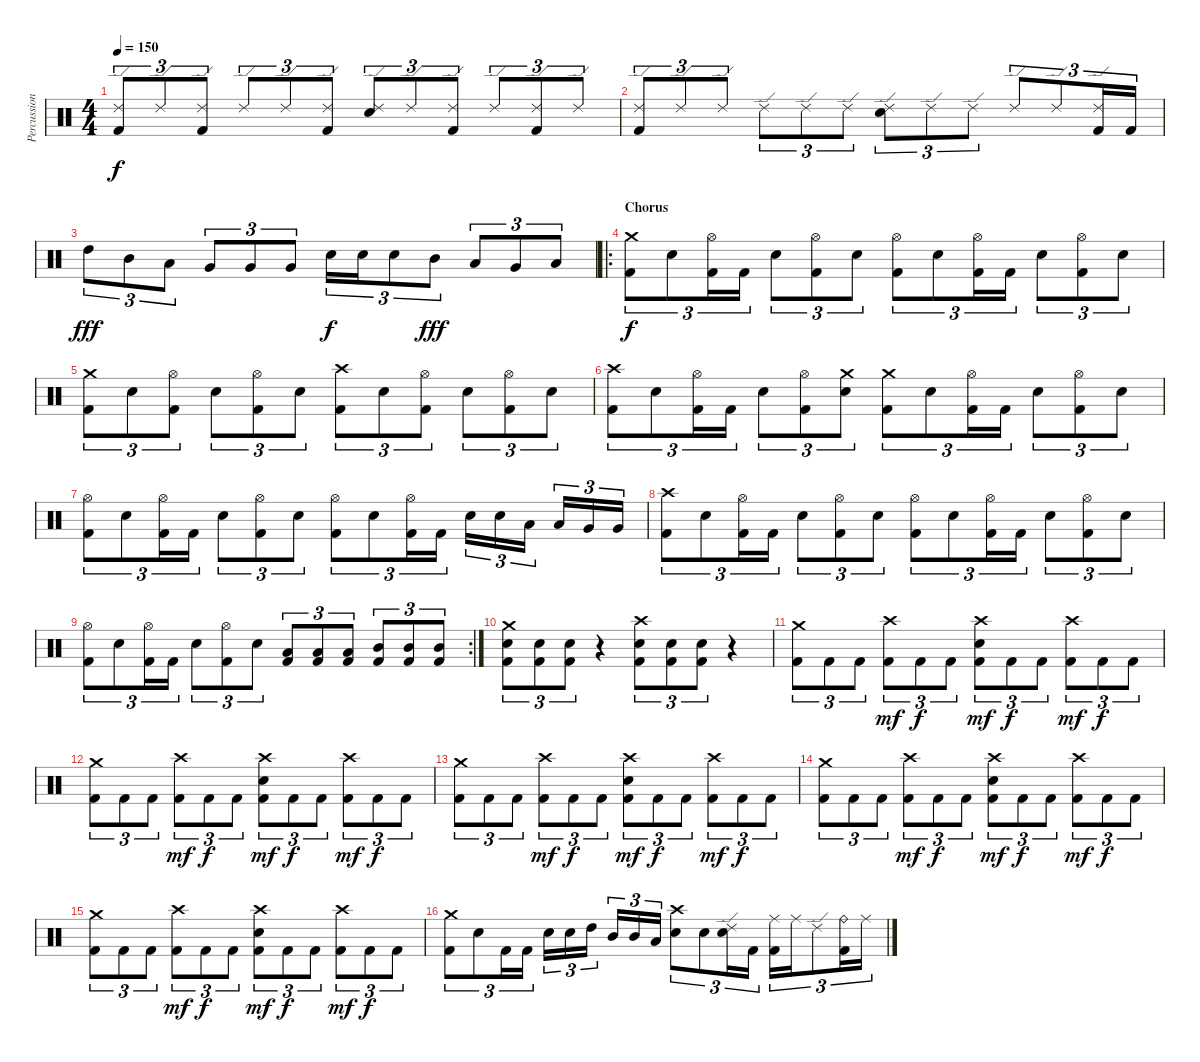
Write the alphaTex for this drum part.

\track ("Percussion" "Percussion") {instrument percussion}
\staff {score}
\articulation defaults
\ts (4 4)
\tempo 150
\clef neutral
\ks c
("Kick (hit) 2" "Ride (edge) 2").8{tu (3 2) dy f} "Ride (edge) 2".8{tu (3 2)} ("Kick (hit) 2" "Ride (edge) 2").8{tu (3 2)} "Ride (edge) 2".8{tu (3 2)} "Ride (edge) 2".8{tu (3 2)} ("Kick (hit) 2" "Ride (edge) 2").8{tu (3 2)} ("Electric Snare (hit)" "Ride (edge) 2").8{tu (3 2)} "Ride (edge) 2".8{tu (3 2)} ("Kick (hit) 2" "Ride (edge) 2").8{tu (3 2)} "Ride (edge) 2".8{tu (3 2)} ("Kick (hit) 2" "Ride (edge) 2").8{tu (3 2)} "Ride (edge) 2".8{tu (3 2)} |
("Kick (hit) 2" "Ride (edge) 2").8{tu (3 2)} "Ride (edge) 2".8{tu (3 2)} "Ride (edge) 2".8{tu (3 2)} "Ride (edge) 2".8{tu (3 2)} "Ride (edge) 2".8{tu (3 2)} "Ride (edge) 2".8{tu (3 2)} ("Electric Snare (hit)" "Ride (edge) 2").8{tu (3 2)} "Ride (edge) 2".8{tu (3 2)} "Ride (edge) 2".8{tu (3 2)} "Ride (edge) 2".8{tu (3 2)} "Ride (edge) 2".8{tu (3 2)} ("Kick (hit) 2" "Ride (edge) 2").16{tu (3 2)} "Kick (hit) 2".16{tu (3 2)} |
"High Tom (hit)".8{tu (3 2) dy fff} "Mid Tom (hit)".8{tu (3 2)} "Low Tom (hit)".8{tu (3 2)} "Very Low Tom (hit)".8{tu (3 2)} "Very Low Tom (hit)".8{tu (3 2)} "Very Low Tom (hit)".8{tu (3 2)} "Electric Snare (hit)".16{tu (3 2) dy f} "Electric Snare (hit)".16{tu (3 2)} "Electric Snare (hit)".8{tu (3 2)} "Mid Tom (hit)".8{tu (3 2) dy fff} "Low Tom (hit)".8{tu (3 2)} "Very Low Tom (hit)".8{tu (3 2)} "Low Floor Tom (hit)".8{tu (3 2)} |
\ro
\section ("" "Chorus")
("Kick (hit) 2" "Crash medium (hit)").8{tu (3 2) dy f} "Electric Snare (hit)".8{tu (3 2)} ("Kick (hit) 2" "Hi-Hat (open)").16{tu (3 2)} "Kick (hit) 2".16{tu (3 2)} "Electric Snare (hit)".8{tu (3 2)} ("Kick (hit) 2" "Hi-Hat (open)").8{tu (3 2)} "Electric Snare (hit)".8{tu (3 2)} ("Kick (hit) 2" "Hi-Hat (open)").8{tu (3 2)} "Electric Snare (hit)".8{tu (3 2)} ("Kick (hit) 2" "Hi-Hat (open)").16{tu (3 2)} "Kick (hit) 2".16{tu (3 2)} "Electric Snare (hit)".8{tu (3 2)} ("Kick (hit) 2" "Hi-Hat (open)").8{tu (3 2)} "Electric Snare (hit)".8{tu (3 2)} |
("Kick (hit) 2" "Crash medium (hit)").8{tu (3 2)} "Electric Snare (hit)".8{tu (3 2)} ("Kick (hit) 2" "Hi-Hat (open)").8{tu (3 2)} "Electric Snare (hit)".8{tu (3 2)} ("Kick (hit) 2" "Hi-Hat (open)").8{tu (3 2)} "Electric Snare (hit)".8{tu (3 2)} ("Kick (hit) 2" "Crash high (hit)").8{tu (3 2)} "Electric Snare (hit)".8{tu (3 2)} ("Kick (hit) 2" "Hi-Hat (open)").8{tu (3 2)} "Electric Snare (hit)".8{tu (3 2)} ("Kick (hit) 2" "Hi-Hat (open)").8{tu (3 2)} "Electric Snare (hit)".8{tu (3 2)} |
("Kick (hit) 2" "Crash high (hit)").8{tu (3 2)} "Electric Snare (hit)".8{tu (3 2)} ("Kick (hit) 2" "Hi-Hat (open)").16{tu (3 2)} "Kick (hit) 2".16{tu (3 2)} "Electric Snare (hit)".8{tu (3 2)} ("Kick (hit) 2" "Hi-Hat (open)").8{tu (3 2)} ("Electric Snare (hit)" "Crash medium (hit)").8{tu (3 2)} ("Kick (hit) 2" "Crash medium (hit)").8{tu (3 2)} "Electric Snare (hit)".8{tu (3 2)} ("Kick (hit) 2" "Hi-Hat (open)").16{tu (3 2)} "Kick (hit) 2".16{tu (3 2)} "Electric Snare (hit)".8{tu (3 2)} ("Kick (hit) 2" "Hi-Hat (open)").8{tu (3 2)} "Electric Snare (hit)".8{tu (3 2)} |
("Kick (hit) 2" "Hi-Hat (open)").8{tu (3 2)} "Electric Snare (hit)".8{tu (3 2)} ("Kick (hit) 2" "Hi-Hat (open)").16{tu (3 2)} "Kick (hit) 2".16{tu (3 2)} "Electric Snare (hit)".8{tu (3 2)} ("Kick (hit) 2" "Hi-Hat (open)").8{tu (3 2)} "Electric Snare (hit)".8{tu (3 2)} ("Kick (hit) 2" "Hi-Hat (open)").8{tu (3 2)} "Electric Snare (hit)".8{tu (3 2)} ("Kick (hit) 2" "Hi-Hat (open)").16{tu (3 2)} "Kick (hit) 2".16{tu (3 2)} "Electric Snare (hit)".16{tu (3 2)} "Electric Snare (hit)".16{tu (3 2)} "Low Tom (hit)".16{tu (3 2)} "Low Tom (hit)".16{tu (3 2)} "Very Low Tom (hit)".16{tu (3 2)} "Very Low Tom (hit)".16{tu (3 2)} |
("Kick (hit) 2" "Crash high (hit)").8{tu (3 2)} "Electric Snare (hit)".8{tu (3 2)} ("Kick (hit) 2" "Hi-Hat (open)").16{tu (3 2)} "Kick (hit) 2".16{tu (3 2)} "Electric Snare (hit)".8{tu (3 2)} ("Kick (hit) 2" "Hi-Hat (open)").8{tu (3 2)} "Electric Snare (hit)".8{tu (3 2)} ("Kick (hit) 2" "Hi-Hat (open)").8{tu (3 2)} "Electric Snare (hit)".8{tu (3 2)} ("Kick (hit) 2" "Hi-Hat (open)").16{tu (3 2)} "Kick (hit) 2".16{tu (3 2)} "Electric Snare (hit)".8{tu (3 2)} ("Kick (hit) 2" "Hi-Hat (open)").8{tu (3 2)} "Electric Snare (hit)".8{tu (3 2)} |
\rc 2
("Kick (hit) 2" "Hi-Hat (open)").8{tu (3 2)} "Electric Snare (hit)".8{tu (3 2)} ("Kick (hit) 2" "Hi-Hat (open)").16{tu (3 2)} "Kick (hit) 2".16{tu (3 2)} "Electric Snare (hit)".8{tu (3 2)} ("Kick (hit) 2" "Hi-Hat (open)").8{tu (3 2)} "Electric Snare (hit)".8{tu (3 2)} ("Kick (hit) 2" "Low Tom (hit)").8{tu (3 2)} ("Kick (hit) 2" "Low Tom (hit)").8{tu (3 2)} ("Kick (hit) 2" "Low Tom (hit)").8{tu (3 2)} ("Kick (hit) 2" "Mid Tom (hit)").8{tu (3 2)} ("Kick (hit) 2" "Mid Tom (hit)").8{tu (3 2)} ("Kick (hit) 2" "Mid Tom (hit)").8{tu (3 2)} |
("Kick (hit) 2" "Electric Snare (hit)" "Crash medium (hit)").8{tu (3 2)} ("Kick (hit) 2" "Electric Snare (hit)").8{tu (3 2)} ("Kick (hit) 2" "Electric Snare (hit)").8{tu (3 2)} r.4 ("Kick (hit) 2" "Electric Snare (hit)" "Crash high (hit)").8{tu (3 2)} ("Kick (hit) 2" "Electric Snare (hit)").8{tu (3 2)} ("Kick (hit) 2" "Electric Snare (hit)").8{tu (3 2)} r.4 |
("Kick (hit) 2" "Crash medium (hit)").8{tu (3 2)} "Kick (hit) 2".8{tu (3 2)} "Kick (hit) 2".8{tu (3 2)} ("Kick (hit) 2" "Crash high (hit)").8{tu (3 2) dy mf} "Kick (hit) 2".8{tu (3 2) dy f} "Kick (hit) 2".8{tu (3 2)} ("Kick (hit) 2" "Electric Snare (hit)" "Crash high (hit)").8{tu (3 2) dy mf} "Kick (hit) 2".8{tu (3 2) dy f} "Kick (hit) 2".8{tu (3 2)} ("Kick (hit) 2" "Crash high (hit)").8{tu (3 2) dy mf} "Kick (hit) 2".8{tu (3 2) dy f} "Kick (hit) 2".8{tu (3 2)} |
("Kick (hit) 2" "Crash medium (hit)").8{tu (3 2)} "Kick (hit) 2".8{tu (3 2)} "Kick (hit) 2".8{tu (3 2)} ("Kick (hit) 2" "Crash high (hit)").8{tu (3 2) dy mf} "Kick (hit) 2".8{tu (3 2) dy f} "Kick (hit) 2".8{tu (3 2)} ("Kick (hit) 2" "Electric Snare (hit)" "Crash high (hit)").8{tu (3 2) dy mf} "Kick (hit) 2".8{tu (3 2) dy f} "Kick (hit) 2".8{tu (3 2)} ("Kick (hit) 2" "Crash high (hit)").8{tu (3 2) dy mf} "Kick (hit) 2".8{tu (3 2) dy f} "Kick (hit) 2".8{tu (3 2)} |
("Kick (hit) 2" "Crash medium (hit)").8{tu (3 2)} "Kick (hit) 2".8{tu (3 2)} "Kick (hit) 2".8{tu (3 2)} ("Kick (hit) 2" "Crash high (hit)").8{tu (3 2) dy mf} "Kick (hit) 2".8{tu (3 2) dy f} "Kick (hit) 2".8{tu (3 2)} ("Kick (hit) 2" "Electric Snare (hit)" "Crash high (hit)").8{tu (3 2) dy mf} "Kick (hit) 2".8{tu (3 2) dy f} "Kick (hit) 2".8{tu (3 2)} ("Kick (hit) 2" "Crash high (hit)").8{tu (3 2) dy mf} "Kick (hit) 2".8{tu (3 2) dy f} "Kick (hit) 2".8{tu (3 2)} |
("Kick (hit) 2" "Crash medium (hit)").8{tu (3 2)} "Kick (hit) 2".8{tu (3 2)} "Kick (hit) 2".8{tu (3 2)} ("Kick (hit) 2" "Crash high (hit)").8{tu (3 2) dy mf} "Kick (hit) 2".8{tu (3 2) dy f} "Kick (hit) 2".8{tu (3 2)} ("Kick (hit) 2" "Electric Snare (hit)" "Crash high (hit)").8{tu (3 2) dy mf} "Kick (hit) 2".8{tu (3 2) dy f} "Kick (hit) 2".8{tu (3 2)} ("Kick (hit) 2" "Crash high (hit)").8{tu (3 2) dy mf} "Kick (hit) 2".8{tu (3 2) dy f} "Kick (hit) 2".8{tu (3 2)} |
("Kick (hit) 2" "Crash medium (hit)").8{tu (3 2)} "Kick (hit) 2".8{tu (3 2)} "Kick (hit) 2".8{tu (3 2)} ("Kick (hit) 2" "Crash high (hit)").8{tu (3 2) dy mf} "Kick (hit) 2".8{tu (3 2) dy f} "Kick (hit) 2".8{tu (3 2)} ("Kick (hit) 2" "Electric Snare (hit)" "Crash high (hit)").8{tu (3 2) dy mf} "Kick (hit) 2".8{tu (3 2) dy f} "Kick (hit) 2".8{tu (3 2)} ("Kick (hit) 2" "Crash high (hit)").8{tu (3 2) dy mf} "Kick (hit) 2".8{tu (3 2) dy f} "Kick (hit) 2".8{tu (3 2)} |
("Kick (hit) 2" "Crash medium (hit)").8{tu (3 2)} "Electric Snare (hit)".8{tu (3 2)} "Kick (hit) 2".16{tu (3 2)} "Kick (hit) 2".16{tu (3 2)} "Electric Snare (hit)".16{tu (3 2)} "Electric Snare (hit)".16{tu (3 2)} "High Tom (hit)".16{tu (3 2)} "Mid Tom (hit)".16{tu (3 2)} "Mid Tom (hit)".16{tu (3 2)} "Low Tom (hit)".16{tu (3 2)} ("Electric Snare (hit)" "Crash high (hit)").8{tu (3 2)} "Electric Snare (hit)".8{tu (3 2)} ("Electric Snare (hit)" "Ride (edge) 2").16{tu (3 2)} "Kick (hit) 2".16{tu (3 2)} ("Kick (hit) 2" "Ride (middle)").16{tu (3 2)} "Ride (middle)".16{tu (3 2)} "Ride (edge) 2".8{tu (3 2)} ("Kick (hit) 2" "Ride (bell)").16{tu (3 2)} "Ride (middle)".16{tu (3 2)}
